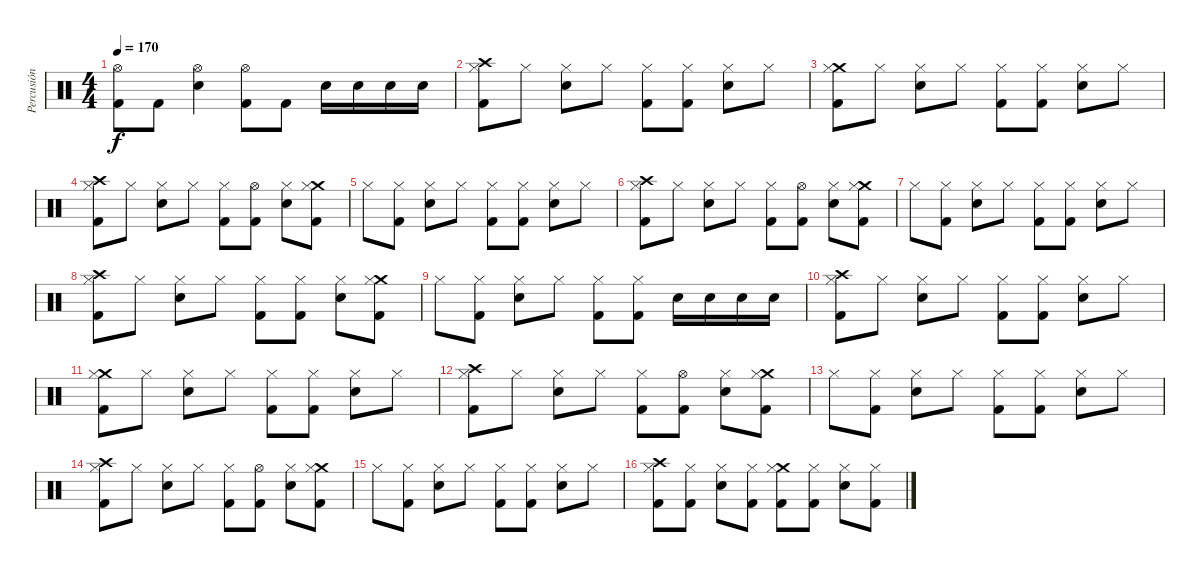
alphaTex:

\track ("Percusión" "Percusión") {instrument percussion}
\staff {score}
\articulation defaults
\ts (4 4)
\tempo 170
\clef neutral
\ks c
("Hi-Hat (open)" "Kick (hit) 2").8{dy f} "Kick (hit) 2".8 ("Hi-Hat (open)" "Electric Snare (hit)").4 ("Hi-Hat (open)" "Kick (hit) 2").8 "Kick (hit) 2".8 "Electric Snare (hit)".16 "Electric Snare (hit)".16 "Electric Snare (hit)".16 "Electric Snare (hit)".16 |
("Crash high (hit)" "Hi-Hat (closed)" "Kick (hit) 2").8 "Hi-Hat (closed)".8 ("Hi-Hat (closed)" "Electric Snare (hit)").8 "Hi-Hat (closed)".8 ("Hi-Hat (closed)" "Kick (hit) 2").8 ("Hi-Hat (closed)" "Kick (hit) 2").8 ("Hi-Hat (closed)" "Electric Snare (hit)").8 "Hi-Hat (closed)".8 |
("Crash medium (hit)" "Hi-Hat (closed)" "Kick (hit) 2").8 "Hi-Hat (closed)".8 ("Hi-Hat (closed)" "Electric Snare (hit)").8 "Hi-Hat (closed)".8 ("Hi-Hat (closed)" "Kick (hit) 2").8 ("Hi-Hat (closed)" "Kick (hit) 2").8 ("Hi-Hat (closed)" "Electric Snare (hit)").8 "Hi-Hat (closed)".8 |
("Crash high (hit)" "Hi-Hat (closed)" "Kick (hit) 2").8 "Hi-Hat (closed)".8 ("Hi-Hat (closed)" "Electric Snare (hit)").8 "Hi-Hat (closed)".8 ("Hi-Hat (closed)" "Kick (hit) 2").8 ("Hi-Hat (open)" "Kick (hit) 2").8 ("Hi-Hat (closed)" "Electric Snare (hit)").8 ("Crash medium (hit)" "Hi-Hat (closed)" "Kick (hit) 2").8 |
"Hi-Hat (closed)".8 ("Hi-Hat (closed)" "Kick (hit) 2").8 ("Hi-Hat (closed)" "Electric Snare (hit)").8 "Hi-Hat (closed)".8 ("Hi-Hat (closed)" "Kick (hit) 2").8 ("Hi-Hat (closed)" "Kick (hit) 2").8 ("Hi-Hat (closed)" "Electric Snare (hit)").8 "Hi-Hat (closed)".8 |
("Crash high (hit)" "Hi-Hat (closed)" "Kick (hit) 2").8 "Hi-Hat (closed)".8 ("Hi-Hat (closed)" "Electric Snare (hit)").8 "Hi-Hat (closed)".8 ("Hi-Hat (closed)" "Kick (hit) 2").8 ("Hi-Hat (open)" "Kick (hit) 2").8 ("Hi-Hat (closed)" "Electric Snare (hit)").8 ("Crash medium (hit)" "Hi-Hat (closed)" "Kick (hit) 2").8 |
"Hi-Hat (closed)".8 ("Hi-Hat (closed)" "Kick (hit) 2").8 ("Hi-Hat (closed)" "Electric Snare (hit)").8 "Hi-Hat (closed)".8 ("Hi-Hat (closed)" "Kick (hit) 2").8 ("Hi-Hat (closed)" "Kick (hit) 2").8 ("Hi-Hat (closed)" "Electric Snare (hit)").8 "Hi-Hat (closed)".8 |
("Crash high (hit)" "Hi-Hat (closed)" "Kick (hit) 2").8 "Hi-Hat (closed)".8 ("Hi-Hat (closed)" "Electric Snare (hit)").8 "Hi-Hat (closed)".8 ("Hi-Hat (closed)" "Kick (hit) 2").8 ("Hi-Hat (closed)" "Kick (hit) 2").8 ("Hi-Hat (closed)" "Electric Snare (hit)").8 ("Crash medium (hit)" "Hi-Hat (closed)" "Kick (hit) 2").8 |
"Hi-Hat (closed)".8 ("Hi-Hat (closed)" "Kick (hit) 2").8 ("Hi-Hat (closed)" "Electric Snare (hit)").8 "Hi-Hat (closed)".8 ("Hi-Hat (closed)" "Kick (hit) 2").8 ("Hi-Hat (closed)" "Kick (hit) 2").8 "Electric Snare (hit)".16 "Electric Snare (hit)".16 "Electric Snare (hit)".16 "Electric Snare (hit)".16 |
("Crash high (hit)" "Hi-Hat (closed)" "Kick (hit) 2").8 "Hi-Hat (closed)".8 ("Hi-Hat (closed)" "Electric Snare (hit)").8 "Hi-Hat (closed)".8 ("Hi-Hat (closed)" "Kick (hit) 2").8 ("Hi-Hat (closed)" "Kick (hit) 2").8 ("Hi-Hat (closed)" "Electric Snare (hit)").8 "Hi-Hat (closed)".8 |
("Crash medium (hit)" "Hi-Hat (closed)" "Kick (hit) 2").8 "Hi-Hat (closed)".8 ("Hi-Hat (closed)" "Electric Snare (hit)").8 "Hi-Hat (closed)".8 ("Hi-Hat (closed)" "Kick (hit) 2").8 ("Hi-Hat (closed)" "Kick (hit) 2").8 ("Hi-Hat (closed)" "Electric Snare (hit)").8 "Hi-Hat (closed)".8 |
("Crash high (hit)" "Hi-Hat (closed)" "Kick (hit) 2").8 "Hi-Hat (closed)".8 ("Hi-Hat (closed)" "Electric Snare (hit)").8 "Hi-Hat (closed)".8 ("Hi-Hat (closed)" "Kick (hit) 2").8 ("Hi-Hat (open)" "Kick (hit) 2").8 ("Hi-Hat (closed)" "Electric Snare (hit)").8 ("Crash medium (hit)" "Hi-Hat (closed)" "Kick (hit) 2").8 |
"Hi-Hat (closed)".8 ("Hi-Hat (closed)" "Kick (hit) 2").8 ("Hi-Hat (closed)" "Electric Snare (hit)").8 "Hi-Hat (closed)".8 ("Hi-Hat (closed)" "Kick (hit) 2").8 ("Hi-Hat (closed)" "Kick (hit) 2").8 ("Hi-Hat (closed)" "Electric Snare (hit)").8 "Hi-Hat (closed)".8 |
("Crash high (hit)" "Hi-Hat (closed)" "Kick (hit) 2").8 "Hi-Hat (closed)".8 ("Hi-Hat (closed)" "Electric Snare (hit)").8 "Hi-Hat (closed)".8 ("Hi-Hat (closed)" "Kick (hit) 2").8 ("Hi-Hat (open)" "Kick (hit) 2").8 ("Hi-Hat (closed)" "Electric Snare (hit)").8 ("Crash medium (hit)" "Hi-Hat (closed)" "Kick (hit) 2").8 |
"Hi-Hat (closed)".8 ("Hi-Hat (closed)" "Kick (hit) 2").8 ("Hi-Hat (closed)" "Electric Snare (hit)").8 "Hi-Hat (closed)".8 ("Hi-Hat (closed)" "Kick (hit) 2").8 ("Hi-Hat (closed)" "Kick (hit) 2").8 ("Hi-Hat (closed)" "Electric Snare (hit)").8 "Hi-Hat (closed)".8 |
("Crash high (hit)" "Hi-Hat (closed)" "Kick (hit) 2").8 ("Hi-Hat (closed)" "Kick (hit) 2").8 ("Hi-Hat (closed)" "Electric Snare (hit)").8 ("Hi-Hat (closed)" "Kick (hit) 2").8 ("Crash medium (hit)" "Hi-Hat (closed)" "Kick (hit) 2").8 ("Hi-Hat (closed)" "Kick (hit) 2").8 ("Hi-Hat (closed)" "Electric Snare (hit)").8 ("Hi-Hat (closed)" "Kick (hit) 2").8
